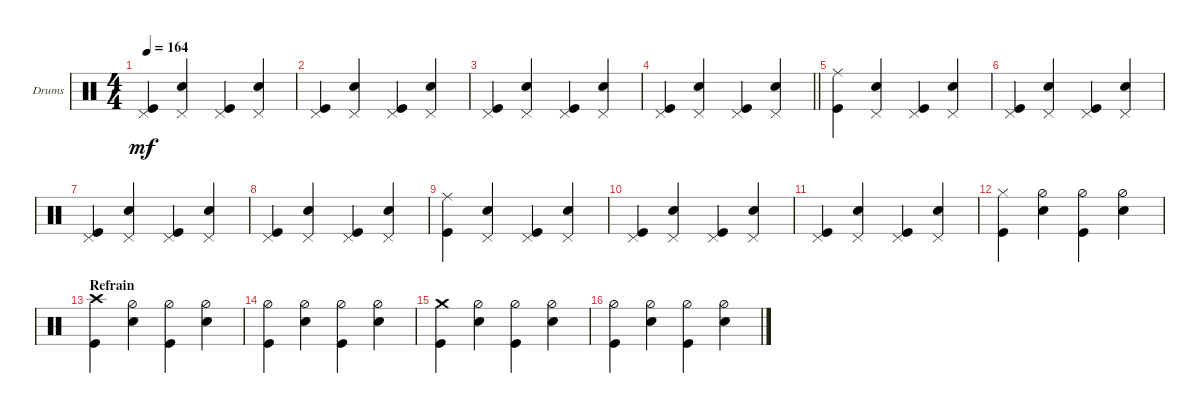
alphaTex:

\defaultSystemsLayout 4
\bracketExtendMode groupsimilarinstruments
\firstSystemTrackNameOrientation horizontal
\otherSystemsTrackNameOrientation horizontal
\track ("Drumkit" "Drums") {instrument percussion}
\staff {score}
\articulation defaults
\ts (4 4)
\tempo 164
\clef neutral
\scale
0.333333
\ks c
("Kick (hit)" "Pedal Hi-Hat (hit)").4{dy mf} ("Snare (hit) 2" "Pedal Hi-Hat (hit)").4 ("Kick (hit)" "Pedal Hi-Hat (hit)").4 ("Snare (hit) 2" "Pedal Hi-Hat (hit)").4 |
\scale
0.333333 ("Kick (hit)" "Pedal Hi-Hat (hit)").4 ("Snare (hit) 2" "Pedal Hi-Hat (hit)").4 ("Kick (hit)" "Pedal Hi-Hat (hit)").4 ("Snare (hit) 2" "Pedal Hi-Hat (hit)").4 |
\scale
0.333333 ("Kick (hit)" "Pedal Hi-Hat (hit)").4 ("Snare (hit) 2" "Pedal Hi-Hat (hit)").4 ("Kick (hit)" "Pedal Hi-Hat (hit)").4 ("Snare (hit) 2" "Pedal Hi-Hat (hit)").4 |
\scale
0.333333
\barLineRight lightlight
("Kick (hit)" "Pedal Hi-Hat (hit)").4 ("Snare (hit) 2" "Pedal Hi-Hat (hit)").4 ("Kick (hit)" "Pedal Hi-Hat (hit)").4 ("Snare (hit) 2" "Pedal Hi-Hat (hit)").4 |
\scale
0.333333 ("Kick (hit)" "Ride (middle)").4 ("Snare (hit) 2" "Pedal Hi-Hat (hit)").4 ("Kick (hit)" "Pedal Hi-Hat (hit)").4 ("Snare (hit) 2" "Pedal Hi-Hat (hit)").4 |
\scale
0.333333 ("Kick (hit)" "Pedal Hi-Hat (hit)").4 ("Snare (hit) 2" "Pedal Hi-Hat (hit)").4 ("Kick (hit)" "Pedal Hi-Hat (hit)").4 ("Snare (hit) 2" "Pedal Hi-Hat (hit)").4 |
\scale
0.333333 ("Kick (hit)" "Pedal Hi-Hat (hit)").4 ("Snare (hit) 2" "Pedal Hi-Hat (hit)").4 ("Kick (hit)" "Pedal Hi-Hat (hit)").4 ("Snare (hit) 2" "Pedal Hi-Hat (hit)").4 |
\scale
0.333333 ("Kick (hit)" "Pedal Hi-Hat (hit)").4 ("Snare (hit) 2" "Pedal Hi-Hat (hit)").4 ("Kick (hit)" "Pedal Hi-Hat (hit)").4 ("Snare (hit) 2" "Pedal Hi-Hat (hit)").4 |
\scale
0.333333 ("Kick (hit)" "Ride (middle)").4 ("Snare (hit) 2" "Pedal Hi-Hat (hit)").4 ("Kick (hit)" "Pedal Hi-Hat (hit)").4 ("Snare (hit) 2" "Pedal Hi-Hat (hit)").4 |
\scale
0.333333 ("Kick (hit)" "Pedal Hi-Hat (hit)").4 ("Snare (hit) 2" "Pedal Hi-Hat (hit)").4 ("Kick (hit)" "Pedal Hi-Hat (hit)").4 ("Snare (hit) 2" "Pedal Hi-Hat (hit)").4 |
\scale
0.333333 ("Kick (hit)" "Pedal Hi-Hat (hit)").4 ("Snare (hit) 2" "Pedal Hi-Hat (hit)").4 ("Kick (hit)" "Pedal Hi-Hat (hit)").4 ("Snare (hit) 2" "Pedal Hi-Hat (hit)").4 |
\scale
0.333333 ("Kick (hit)" "Hi-Hat (closed)").4 ("Snare (hit) 2" "Hi-Hat (half)").4 ("Kick (hit)" "Hi-Hat (half)").4 ("Snare (hit) 2" "Hi-Hat (half)").4 |
\section ("" "Refrain")
\scale
0.333333 ("Kick (hit)" "Crash high (hit)").4 ("Snare (hit) 2" "Hi-Hat (half)").4 ("Kick (hit)" "Hi-Hat (half)").4 ("Snare (hit) 2" "Hi-Hat (half)").4 |
\scale
0.333333 ("Kick (hit)" "Hi-Hat (half)").4 ("Snare (hit) 2" "Hi-Hat (half)").4 ("Kick (hit)" "Hi-Hat (half)").4 ("Snare (hit) 2" "Hi-Hat (half)").4 |
\scale
0.333333 ("Kick (hit)" "Crash medium (hit)").4 ("Snare (hit) 2" "Hi-Hat (half)").4 ("Kick (hit)" "Hi-Hat (half)").4 ("Snare (hit) 2" "Hi-Hat (half)").4 |
\scale
0.333333 ("Kick (hit)" "Hi-Hat (half)").4 ("Snare (hit) 2" "Hi-Hat (half)").4 ("Kick (hit)" "Hi-Hat (half)").4 ("Snare (hit) 2" "Hi-Hat (half)").4
